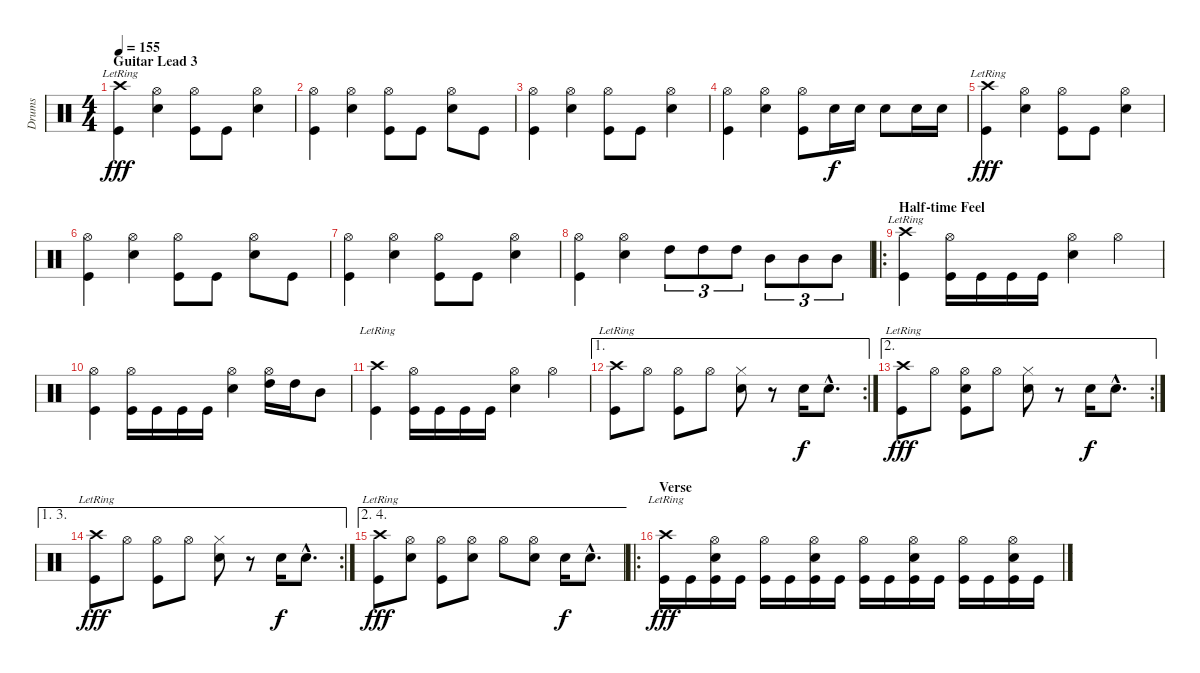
\track ("Drums" "Drums") {instrument percussion}
\staff {score}
\articulation defaults
\ts (4 4)
\section ("" "Guitar Lead 3")
\tempo 155
\clef neutral
\ks c
("Crash high (hit)"{lr} "Kick (hit)").4{dy fff} ("Hi-Hat (open)" "Snare (hit) 2").4 ("Hi-Hat (open)" "Kick (hit)").8 "Kick (hit)".8 ("Hi-Hat (open)" "Snare (hit) 2").4 |
("Hi-Hat (open)" "Kick (hit)").4 ("Hi-Hat (open)" "Snare (hit) 2").4 ("Hi-Hat (open)" "Kick (hit)").8 "Kick (hit)".8 ("Hi-Hat (open)" "Snare (hit) 2").8 "Kick (hit)".8 |
("Hi-Hat (open)" "Kick (hit)").4 ("Hi-Hat (open)" "Snare (hit) 2").4 ("Hi-Hat (open)" "Kick (hit)").8 "Kick (hit)".8 ("Hi-Hat (open)" "Snare (hit) 2").4 |
("Hi-Hat (open)" "Kick (hit)").4 ("Hi-Hat (open)" "Snare (hit) 2").4 ("Hi-Hat (open)" "Kick (hit)").8 "Snare (hit) 2".16{dy f} "Snare (hit) 2".16 "Snare (hit) 2".8 "Snare (hit) 2".16 "Snare (hit) 2".16 |
("Crash high (hit)"{lr} "Kick (hit)").4{dy fff} ("Hi-Hat (open)" "Snare (hit) 2").4 ("Hi-Hat (open)" "Kick (hit)").8 "Kick (hit)".8 ("Hi-Hat (open)" "Snare (hit) 2").4 |
("Hi-Hat (open)" "Kick (hit)").4 ("Hi-Hat (open)" "Snare (hit) 2").4 ("Hi-Hat (open)" "Kick (hit)").8 "Kick (hit)".8 ("Hi-Hat (open)" "Snare (hit) 2").8 "Kick (hit)".8 |
("Hi-Hat (open)" "Kick (hit)").4 ("Hi-Hat (open)" "Snare (hit) 2").4 ("Hi-Hat (open)" "Kick (hit)").8 "Kick (hit)".8 ("Hi-Hat (open)" "Snare (hit) 2").4 |
("Hi-Hat (open)" "Kick (hit)").4 ("Hi-Hat (open)" "Snare (hit) 2").4 "High Tom (hit)".8{tu (3 2) balance 3} "High Tom (hit)".8{tu (3 2)} "High Tom (hit)".8{tu (3 2)} "Mid Tom (hit)".8{tu (3 2) balance 6} "Mid Tom (hit)".8{tu (3 2)} "Mid Tom (hit)".8{tu (3 2)} |
\ro
\section ("" "Half-time Feel")
("Crash high (hit)"{lr} "Kick (hit)").4{balance 8} ("Hi-Hat (open)" "Kick (hit)").16 "Kick (hit)".16 "Kick (hit)".16 "Kick (hit)".16 ("Hi-Hat (open)" "Snare (hit) 2").4 "Hi-Hat (open)".4 |
("Hi-Hat (open)" "Kick (hit)").4 ("Hi-Hat (open)" "Kick (hit)").16 "Kick (hit)".16 "Kick (hit)".16 "Kick (hit)".16 ("Hi-Hat (open)" "Snare (hit) 2").4 ("Hi-Hat (open)" "High Tom (hit)").16{balance 3} "High Tom (hit)".16 "Mid Tom (hit)".8{balance 5} |
("Crash high (hit)"{lr} "Kick (hit)").4{balance 8} ("Hi-Hat (open)" "Kick (hit)").16 "Kick (hit)".16 "Kick (hit)".16 "Kick (hit)".16 ("Hi-Hat (open)" "Snare (hit) 2").4 "Hi-Hat (open)".4 |
\ae 1
\rc 2
("Crash high (hit)"{lr} "Kick (hit)").8 "Hi-Hat (open)".8 ("Hi-Hat (open)" "Kick (hit)").8 "Hi-Hat (open)".8 ("Hi-Hat (closed)" "Snare (hit) 2").8 r.8 "Snare (hit) 2".16{dy f} "Snare (hit) 2"{hac}.8{d} |
\ae 2
\rc 2
("Crash high (hit)"{lr} "Kick (hit)").8{dy fff} "Hi-Hat (open)".8 ("Hi-Hat (open)" "Snare (hit) 2" "Kick (hit)").8 "Hi-Hat (open)".8 ("Hi-Hat (closed)" "Snare (hit) 2").8 r.8 "Snare (hit) 2".16{dy f} "Snare (hit) 2"{hac}.8{d} |
\ae (1 3)
\rc 2
("Crash high (hit)"{lr} "Kick (hit)").8{dy fff} "Hi-Hat (open)".8 ("Hi-Hat (open)" "Kick (hit)").8 "Hi-Hat (open)".8 ("Hi-Hat (closed)" "Snare (hit) 2").8 r.8 "Snare (hit) 2".16{dy f} "Snare (hit) 2"{hac}.8{d} |
\ae (2 4)
("Crash high (hit)"{lr} "Kick (hit)").8{dy fff} ("Hi-Hat (open)" "Snare (hit) 2").8 ("Hi-Hat (open)" "Kick (hit)").8 ("Hi-Hat (open)" "Snare (hit) 2").8 "Hi-Hat (open)".8 ("Hi-Hat (open)" "Snare (hit) 2").8 "Snare (hit) 2".16{dy f} "Snare (hit) 2"{hac}.8{d} |
\ro
\section ("" "Verse")
("Crash high (hit)"{lr} "Kick (hit)").16{dy fff} "Kick (hit)".16 ("Hi-Hat (open)" "Snare (hit) 2" "Kick (hit)").16 "Kick (hit)".16 ("Hi-Hat (open)" "Kick (hit)").16 "Kick (hit)".16 ("Hi-Hat (open)" "Snare (hit) 2" "Kick (hit)").16 "Kick (hit)".16 ("Hi-Hat (open)" "Kick (hit)").16 "Kick (hit)".16 ("Hi-Hat (open)" "Snare (hit) 2" "Kick (hit)").16 "Kick (hit)".16 ("Hi-Hat (open)" "Kick (hit)").16 "Kick (hit)".16 ("Hi-Hat (open)" "Snare (hit) 2" "Kick (hit)").16 "Kick (hit)".16
